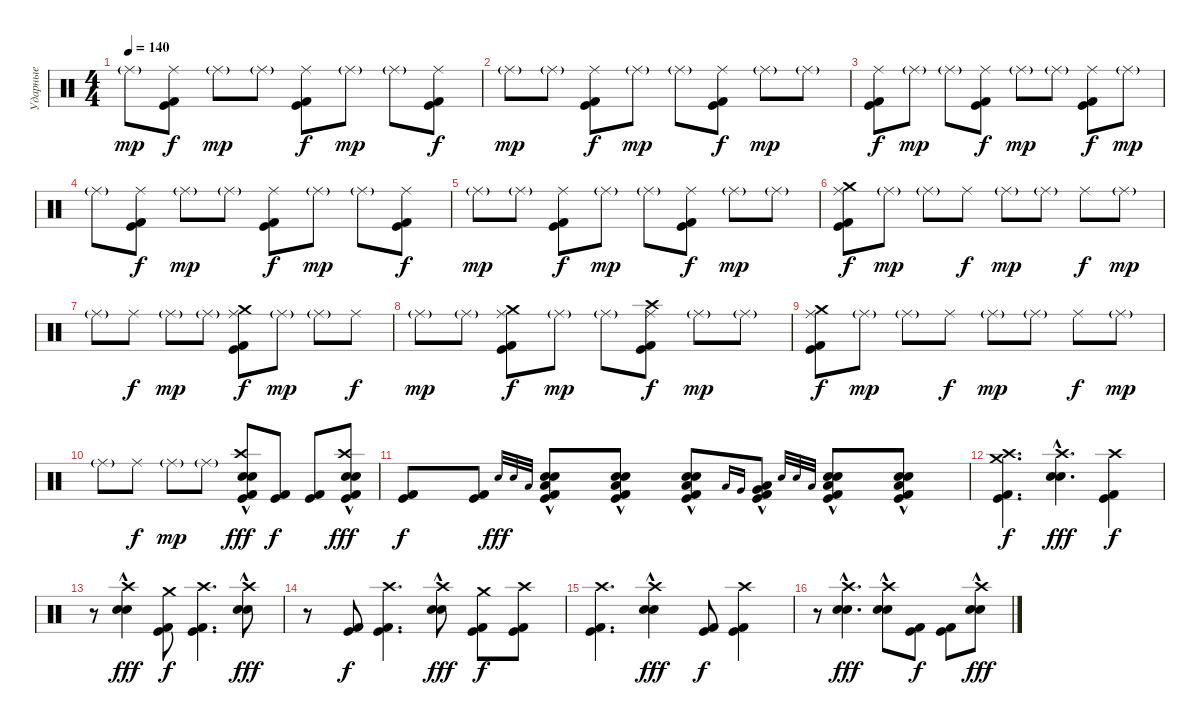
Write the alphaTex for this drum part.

\track ("Ударные" "Ударные") {instrument percussion}
\staff {score}
\articulation defaults
\ts (4 4)
\tempo 140
\clef neutral
\ks c "Ride (middle)"{g}.8{dy mp}
("Ride (middle)" "Kick (hit)" "Kick (hit) 2").8{dy f} "Ride (middle)"{g}.8{dy mp} "Ride (middle)"{g}.8 ("Ride (middle)" "Kick (hit)" "Kick (hit) 2").8{dy f} "Ride (middle)"{g}.8{dy mp} "Ride (middle)"{g}.8 ("Ride (middle)" "Kick (hit)" "Kick (hit) 2").8{dy f} |
"Ride (middle)"{g}.8{dy mp} "Ride (middle)"{g}.8 ("Ride (middle)" "Kick (hit)" "Kick (hit) 2").8{dy f} "Ride (middle)"{g}.8{dy mp} "Ride (middle)"{g}.8 ("Ride (middle)" "Kick (hit)" "Kick (hit) 2").8{dy f} "Ride (middle)"{g}.8{dy mp} "Ride (middle)"{g}.8 |
("Ride (middle)" "Kick (hit)" "Kick (hit) 2").8{dy f} "Ride (middle)"{g}.8{dy mp} "Ride (middle)"{g}.8 ("Ride (middle)" "Kick (hit)" "Kick (hit) 2").8{dy f} "Ride (middle)"{g}.8{dy mp} "Ride (middle)"{g}.8 ("Ride (middle)" "Kick (hit)" "Kick (hit) 2").8{dy f} "Ride (middle)"{g}.8{dy mp} |
"Ride (middle)"{g}.8 ("Ride (middle)" "Kick (hit)" "Kick (hit) 2").8{dy f} "Ride (middle)"{g}.8{dy mp} "Ride (middle)"{g}.8 ("Ride (middle)" "Kick (hit)" "Kick (hit) 2").8{dy f} "Ride (middle)"{g}.8{dy mp} "Ride (middle)"{g}.8 ("Ride (middle)" "Kick (hit)" "Kick (hit) 2").8{dy f} |
"Ride (middle)"{g}.8{dy mp} "Ride (middle)"{g}.8 ("Ride (middle)" "Kick (hit)" "Kick (hit) 2").8{dy f} "Ride (middle)"{g}.8{dy mp} "Ride (middle)"{g}.8 ("Ride (middle)" "Kick (hit)" "Kick (hit) 2").8{dy f} "Ride (middle)"{g}.8{dy mp} "Ride (middle)"{g}.8 |
("Ride (middle)" "Kick (hit)" "Kick (hit) 2" "Crash medium (hit)").8{dy f} "Ride (middle)"{g}.8{dy mp} "Ride (middle)"{g}.8 "Ride (middle)".8{dy f} "Ride (middle)"{g}.8{dy mp} "Ride (middle)"{g}.8 "Ride (middle)".8{dy f} "Ride (middle)"{g}.8{dy mp} |
"Ride (middle)"{g}.8 "Ride (middle)".8{dy f} "Ride (middle)"{g}.8{dy mp} "Ride (middle)"{g}.8 ("Ride (middle)" "Kick (hit)" "Kick (hit) 2" "Crash medium (hit)").8{dy f} "Ride (middle)"{g}.8{dy mp} "Ride (middle)"{g}.8 "Ride (middle)".8{dy f} |
"Ride (middle)"{g}.8{dy mp} "Ride (middle)"{g}.8 ("Ride (middle)" "Kick (hit)" "Kick (hit) 2" "Crash medium (hit)").8{dy f} "Ride (middle)"{g}.8{dy mp} "Ride (middle)"{g}.8 ("Ride (middle)" "Kick (hit)" "Kick (hit) 2" "Crash high (hit)").8{dy f} "Ride (middle)"{g}.8{dy mp} "Ride (middle)"{g}.8 |
("Ride (middle)" "Kick (hit)" "Kick (hit) 2" "Crash medium (hit)").8{dy f} "Ride (middle)"{g}.8{dy mp} "Ride (middle)"{g}.8 "Ride (middle)".8{dy f} "Ride (middle)"{g}.8{dy mp} "Ride (middle)"{g}.8 "Ride (middle)".8{dy f} "Ride (middle)"{g}.8{dy mp} |
"Ride (middle)"{g}.8 "Ride (middle)".8{dy f} "Ride (middle)"{g}.8{dy mp} "Ride (middle)"{g}.8 ("Crash high (hit)" "Kick (hit)" "Kick (hit) 2" "Snare (hit) 2"{hac} "Electric Snare (hit)"{hac}).8{dy fff} ("Kick (hit)" "Kick (hit) 2").8{dy f} ("Kick (hit)" "Kick (hit) 2").8 ("Crash high (hit)" "Kick (hit)" "Kick (hit) 2" "Snare (hit) 2"{hac} "Electric Snare (hit)"{hac}).8{dy fff} |
("Kick (hit)" "Kick (hit) 2").8{dy f} ("Kick (hit)" "Kick (hit) 2").8 "Snare (hit) 2".32{gr onbeat dy fff} "Electric Snare (hit)".32{gr onbeat} "Low Floor Tom (hit)".32{gr onbeat} ("Kick (hit)" "Kick (hit) 2" "Snare (hit) 2"{hac} "Electric Snare (hit)"{hac} "Low Floor Tom (hit)"{hac}).8 ("Kick (hit)" "Kick (hit) 2" "Snare (hit) 2"{hac} "Electric Snare (hit)"{hac} "Low Floor Tom (hit)"{hac}).8 ("Kick (hit)" "Kick (hit) 2" "Snare (hit) 2"{hac} "Electric Snare (hit)"{hac} "Low Floor Tom (hit)"{hac}).8 "Low Tom (hit)".16{gr onbeat} "Very Low Tom (hit)".16{gr onbeat} ("Kick (hit)" "Kick (hit) 2" "Low Tom (hit)"{hac} "Very Low Tom (hit)"{hac}).8 "Snare (hit) 2".32{gr onbeat} "Electric Snare (hit)".32{gr onbeat} "Low Floor Tom (hit)".32{gr onbeat} ("Kick (hit)" "Kick (hit) 2" "Snare (hit) 2"{hac} "Electric Snare (hit)"{hac} "Low Floor Tom (hit)"{hac}).8 ("Kick (hit)" "Kick (hit) 2" "Snare (hit) 2"{hac} "Electric Snare (hit)"{hac} "Low Floor Tom (hit)"{hac}).8 |
("Crash high (hit)" "Kick (hit)" "Kick (hit) 2" "Crash medium (hit)").4{d dy f} ("Crash high (hit)" "Snare (hit) 2"{hac} "Electric Snare (hit)"{hac}).4{d dy fff} ("Crash high (hit)" "Kick (hit)" "Kick (hit) 2").4{dy f} |
r.8 ("Crash high (hit)" "Snare (hit) 2"{hac} "Electric Snare (hit)"{hac}).4{dy fff} ("Crash medium (hit)" "Kick (hit)" "Kick (hit) 2").8{dy f} ("Crash high (hit)" "Kick (hit)" "Kick (hit) 2").4{d} ("Crash high (hit)" "Snare (hit) 2"{hac} "Electric Snare (hit)"{hac}).8{dy fff} |
r.8 ("Kick (hit)" "Kick (hit) 2").8{dy f} ("Crash high (hit)" "Kick (hit)" "Kick (hit) 2").4{d} ("Crash high (hit)" "Snare (hit) 2"{hac} "Electric Snare (hit)"{hac}).8{dy fff} ("Crash medium (hit)" "Kick (hit)" "Kick (hit) 2").8{dy f} ("Crash high (hit)" "Kick (hit)" "Kick (hit) 2").8 |
("Crash high (hit)" "Kick (hit)" "Kick (hit) 2").4{d} ("Crash high (hit)" "Snare (hit) 2"{hac} "Electric Snare (hit)"{hac}).4{dy fff} ("Kick (hit)" "Kick (hit) 2").8{dy f} ("Crash high (hit)" "Kick (hit)" "Kick (hit) 2").4 |
r.8 ("Crash high (hit)" "Snare (hit) 2"{hac} "Electric Snare (hit)"{hac}).4{d dy fff} ("Crash high (hit)" "Snare (hit) 2"{hac} "Electric Snare (hit)"{hac}).8 ("Kick (hit)" "Kick (hit) 2").8{dy f} ("Kick (hit)" "Kick (hit) 2").8 ("Crash high (hit)" "Snare (hit) 2"{hac} "Electric Snare (hit)"{hac}).8{dy fff}
